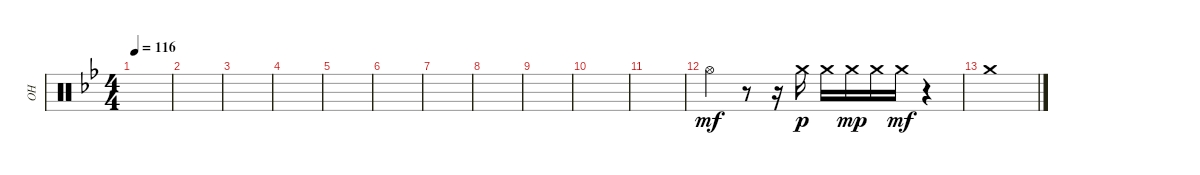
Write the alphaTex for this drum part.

\track ("OH" "OH") {instrument percussion}
\staff {score}
\articulation defaults
\ts (4 4)
\tempo 116
\clef neutral
\ks bb
|
|
|
|
|
|
|
|
|
|
|
"Hi-Hat (open)".4{dy mf} r.8 r.16 "Crash medium (hit)".16{dy p} "Crash medium (hit)".16 "Crash medium (hit)".16{dy mp} "Crash medium (hit)".16 "Crash medium (hit)".16{dy mf} r.4 |
"Crash medium (hit)".1
